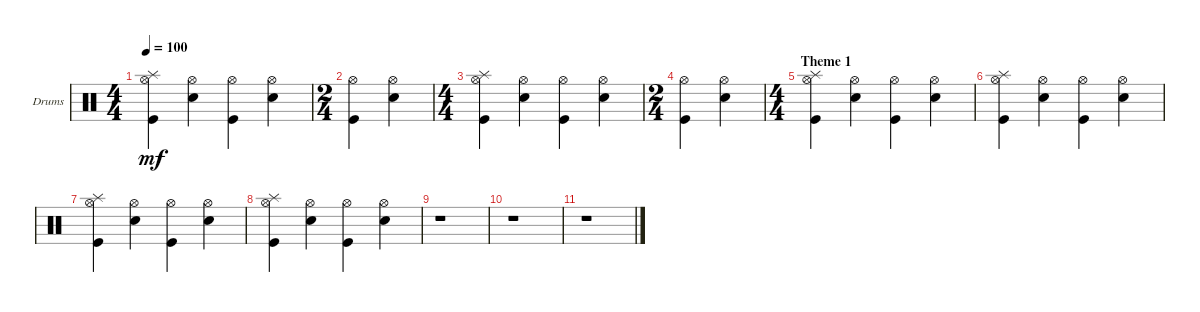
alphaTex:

\defaultSystemsLayout 4
\bracketExtendMode groupsimilarinstruments
\firstSystemTrackNameOrientation horizontal
\otherSystemsTrackNameOrientation horizontal
\track ("Drumkit" "Drums") {instrument percussion}
\staff {score}
\articulation defaults
\ts (4 4)
\tempo 100
\clef neutral
\ks c
("Kick (hit)" "Splash (hit)" "Hi-Hat (open)").4{dy mf} ("Hi-Hat (open)" "Snare (hit) 2").4 ("Hi-Hat (open)" "Kick (hit)").4 ("Hi-Hat (open)" "Snare (hit) 2").4 |
\ts (2 4)
("Hi-Hat (open)" "Kick (hit)").4 ("Hi-Hat (open)" "Snare (hit) 2").4 |
\ts (4 4)
("Kick (hit)" "Splash (hit)" "Hi-Hat (open)").4 ("Hi-Hat (open)" "Snare (hit) 2").4 ("Hi-Hat (open)" "Kick (hit)").4 ("Hi-Hat (open)" "Snare (hit) 2").4 |
\ts (2 4)
("Hi-Hat (open)" "Kick (hit)").4 ("Hi-Hat (open)" "Snare (hit) 2").4 |
\ts (4 4)
\section ("" "Theme 1")
("Kick (hit)" "Splash (hit)" "Hi-Hat (open)").4 ("Hi-Hat (open)" "Snare (hit) 2").4 ("Hi-Hat (open)" "Kick (hit)").4 ("Hi-Hat (open)" "Snare (hit) 2").4 |
("Kick (hit)" "Splash (hit)" "Hi-Hat (open)").4 ("Hi-Hat (open)" "Snare (hit) 2").4 ("Hi-Hat (open)" "Kick (hit)").4 ("Hi-Hat (open)" "Snare (hit) 2").4 |
("Kick (hit)" "Splash (hit)" "Hi-Hat (open)").4 ("Hi-Hat (open)" "Snare (hit) 2").4 ("Hi-Hat (open)" "Kick (hit)").4 ("Hi-Hat (open)" "Snare (hit) 2").4 |
("Kick (hit)" "Splash (hit)" "Hi-Hat (open)").4 ("Hi-Hat (open)" "Snare (hit) 2").4 ("Hi-Hat (open)" "Kick (hit)").4 ("Hi-Hat (open)" "Snare (hit) 2").4 |
r.1 |
r.1 |
r.1
